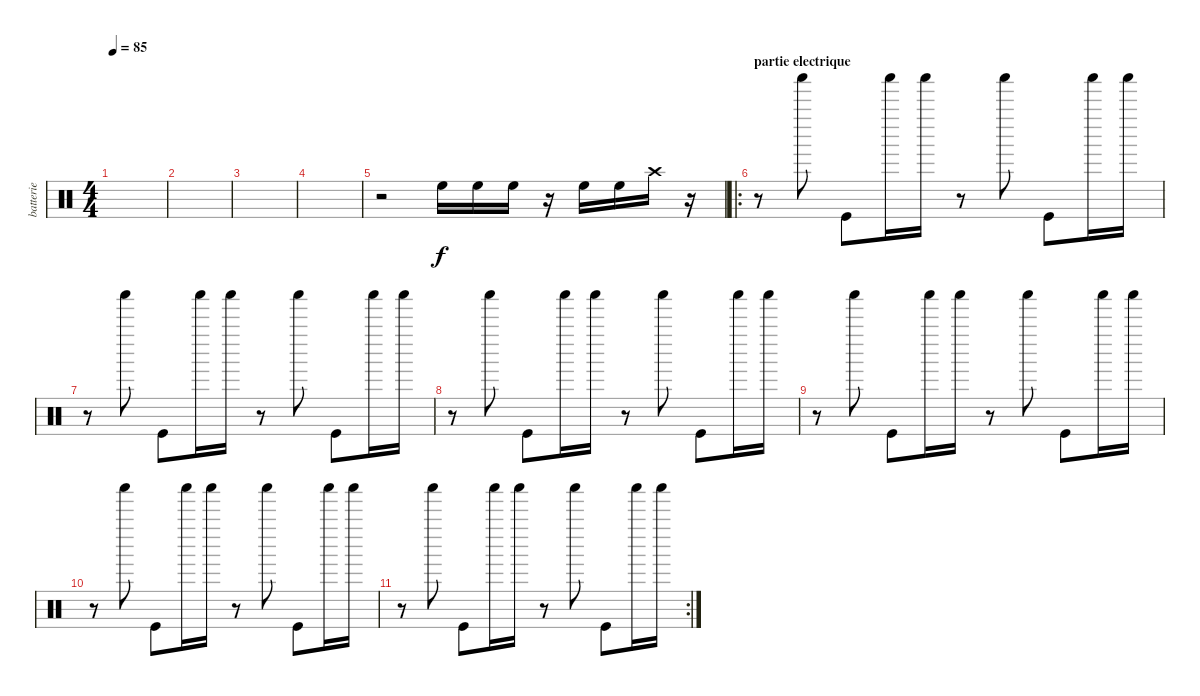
\track ("batterie" "batterie") {instrument percussion}
\staff {score}
\articulation defaults
\ts (4 4)
\tempo 85
\clef neutral
\ks c
|
|
|
|
r.2 "High Floor Tom (hit)".16 "High Floor Tom (hit)".16 "High Floor Tom (hit)".16 r.16 "High Floor Tom (hit)".16 "High Floor Tom (hit)".16 "Crash high (hit)".16 r.16 |
\ro
\section ("" "partie electrique")
r.8 "Shaker (hit)".8 "Kick (hit)".8 "Shaker (hit)".16 "Shaker (hit)".16 r.8 "Shaker (hit)".8 "Kick (hit)".8 "Shaker (hit)".16 "Shaker (hit)".16 |
r.8 "Shaker (hit)".8 "Kick (hit)".8 "Shaker (hit)".16 "Shaker (hit)".16 r.8 "Shaker (hit)".8 "Kick (hit)".8 "Shaker (hit)".16 "Shaker (hit)".16 |
r.8 "Shaker (hit)".8 "Kick (hit)".8 "Shaker (hit)".16 "Shaker (hit)".16 r.8 "Shaker (hit)".8 "Kick (hit)".8 "Shaker (hit)".16 "Shaker (hit)".16 |
r.8 "Shaker (hit)".8 "Kick (hit)".8 "Shaker (hit)".16 "Shaker (hit)".16 r.8 "Shaker (hit)".8 "Kick (hit)".8 "Shaker (hit)".16 "Shaker (hit)".16 |
r.8 "Shaker (hit)".8 "Kick (hit)".8 "Shaker (hit)".16 "Shaker (hit)".16 r.8 "Shaker (hit)".8 "Kick (hit)".8 "Shaker (hit)".16 "Shaker (hit)".16 |
\rc 2
r.8 "Shaker (hit)".8 "Kick (hit)".8 "Shaker (hit)".16 "Shaker (hit)".16 r.8 "Shaker (hit)".8 "Kick (hit)".8 "Shaker (hit)".16 "Shaker (hit)".16
